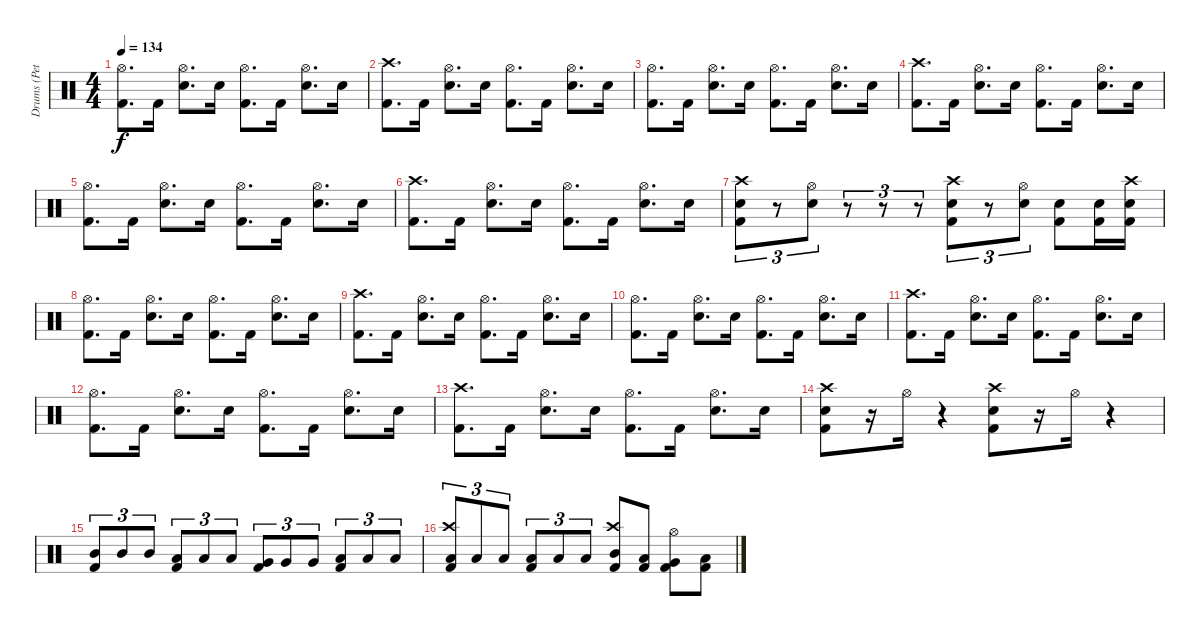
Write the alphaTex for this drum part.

\track ("Drums (Peter Criss)" "Drums (Pet") {instrument percussion}
\staff {score}
\articulation defaults
\ts (4 4)
\tempo 134
\clef neutral
\ks c
("Hi-Hat (open)" "Kick (hit) 2").8{d dy f} "Kick (hit) 2".16 ("Snare (hit) 2" "Hi-Hat (open)").8{d} "Snare (hit) 2".16 ("Hi-Hat (open)" "Kick (hit) 2").8{d} "Kick (hit) 2".16 ("Snare (hit) 2" "Hi-Hat (open)").8{d} "Snare (hit) 2".16 |
("Crash high (hit)" "Kick (hit) 2").8{d} "Kick (hit) 2".16 ("Snare (hit) 2" "Hi-Hat (open)").8{d} "Snare (hit) 2".16 ("Hi-Hat (open)" "Kick (hit) 2").8{d} "Kick (hit) 2".16 ("Snare (hit) 2" "Hi-Hat (open)").8{d} "Snare (hit) 2".16 |
("Hi-Hat (open)" "Kick (hit) 2").8{d} "Kick (hit) 2".16 ("Snare (hit) 2" "Hi-Hat (open)").8{d} "Snare (hit) 2".16 ("Hi-Hat (open)" "Kick (hit) 2").8{d} "Kick (hit) 2".16 ("Snare (hit) 2" "Hi-Hat (open)").8{d} "Snare (hit) 2".16 |
("Crash high (hit)" "Kick (hit) 2").8{d} "Kick (hit) 2".16 ("Snare (hit) 2" "Hi-Hat (open)").8{d} "Snare (hit) 2".16 ("Hi-Hat (open)" "Kick (hit) 2").8{d} "Kick (hit) 2".16 ("Snare (hit) 2" "Hi-Hat (open)").8{d} "Snare (hit) 2".16 |
("Hi-Hat (open)" "Kick (hit) 2").8{d} "Kick (hit) 2".16 ("Snare (hit) 2" "Hi-Hat (open)").8{d} "Snare (hit) 2".16 ("Hi-Hat (open)" "Kick (hit) 2").8{d} "Kick (hit) 2".16 ("Snare (hit) 2" "Hi-Hat (open)").8{d} "Snare (hit) 2".16 |
("Crash high (hit)" "Kick (hit) 2").8{d} "Kick (hit) 2".16 ("Snare (hit) 2" "Hi-Hat (open)").8{d} "Snare (hit) 2".16 ("Hi-Hat (open)" "Kick (hit) 2").8{d} "Kick (hit) 2".16 ("Snare (hit) 2" "Hi-Hat (open)").8{d} "Snare (hit) 2".16 |
("Crash high (hit)" "Snare (hit) 2" "Kick (hit) 2").8{tu (3 2)} r.8{tu (3 2)} ("Hi-Hat (open)" "Snare (hit) 2").8{tu (3 2)} r.8{tu (3 2)} r.8{tu (3 2)} r.8{tu (3 2)} ("Crash high (hit)" "Snare (hit) 2" "Kick (hit) 2").8{tu (3 2)} r.8{tu (3 2)} ("Hi-Hat (open)" "Snare (hit) 2").8{tu (3 2)} ("Snare (hit) 2" "Kick (hit) 2").8 ("Snare (hit) 2" "Kick (hit) 2").16 ("Crash high (hit)" "Snare (hit) 2" "Kick (hit) 2").16 |
("Hi-Hat (open)" "Kick (hit) 2").8{d} "Kick (hit) 2".16 ("Snare (hit) 2" "Hi-Hat (open)").8{d} "Snare (hit) 2".16 ("Hi-Hat (open)" "Kick (hit) 2").8{d} "Kick (hit) 2".16 ("Snare (hit) 2" "Hi-Hat (open)").8{d} "Snare (hit) 2".16 |
("Crash high (hit)" "Kick (hit) 2").8{d} "Kick (hit) 2".16 ("Snare (hit) 2" "Hi-Hat (open)").8{d} "Snare (hit) 2".16 ("Hi-Hat (open)" "Kick (hit) 2").8{d} "Kick (hit) 2".16 ("Snare (hit) 2" "Hi-Hat (open)").8{d} "Snare (hit) 2".16 |
("Hi-Hat (open)" "Kick (hit) 2").8{d} "Kick (hit) 2".16 ("Snare (hit) 2" "Hi-Hat (open)").8{d} "Snare (hit) 2".16 ("Hi-Hat (open)" "Kick (hit) 2").8{d} "Kick (hit) 2".16 ("Snare (hit) 2" "Hi-Hat (open)").8{d} "Snare (hit) 2".16 |
("Crash high (hit)" "Kick (hit) 2").8{d} "Kick (hit) 2".16 ("Snare (hit) 2" "Hi-Hat (open)").8{d} "Snare (hit) 2".16 ("Hi-Hat (open)" "Kick (hit) 2").8{d} "Kick (hit) 2".16 ("Snare (hit) 2" "Hi-Hat (open)").8{d} "Snare (hit) 2".16 |
("Hi-Hat (open)" "Kick (hit) 2").8{d} "Kick (hit) 2".16 ("Snare (hit) 2" "Hi-Hat (open)").8{d} "Snare (hit) 2".16 ("Hi-Hat (open)" "Kick (hit) 2").8{d} "Kick (hit) 2".16 ("Snare (hit) 2" "Hi-Hat (open)").8{d} "Snare (hit) 2".16 |
("Crash high (hit)" "Kick (hit) 2").8{d} "Kick (hit) 2".16 ("Snare (hit) 2" "Hi-Hat (open)").8{d} "Snare (hit) 2".16 ("Hi-Hat (open)" "Kick (hit) 2").8{d} "Kick (hit) 2".16 ("Snare (hit) 2" "Hi-Hat (open)").8{d} "Snare (hit) 2".16 |
("Snare (hit) 2" "Crash high (hit)" "Kick (hit) 2").8 r.16 "Hi-Hat (open)".16 r.4 ("Snare (hit) 2" "Crash high (hit)" "Kick (hit) 2").8 r.16 "Hi-Hat (open)".16 r.4 |
("Mid Tom (hit)" "Kick (hit) 2").8{tu (3 2)} "Mid Tom (hit)".8{tu (3 2)} "Mid Tom (hit)".8{tu (3 2)} ("Low Tom (hit)" "Kick (hit) 2").8{tu (3 2)} "Low Tom (hit)".8{tu (3 2)} "Low Tom (hit)".8{tu (3 2)} ("Very Low Tom (hit)" "Kick (hit) 2").8{tu (3 2)} "Very Low Tom (hit)".8{tu (3 2)} "Very Low Tom (hit)".8{tu (3 2)} ("Low Floor Tom (hit)" "Kick (hit) 2").8{tu (3 2)} "Low Floor Tom (hit)".8{tu (3 2)} "Low Floor Tom (hit)".8{tu (3 2)} |
("Low Floor Tom (hit)" "Crash high (hit)" "Kick (hit) 2").8{tu (3 2)} "Low Floor Tom (hit)".8{tu (3 2)} "Low Floor Tom (hit)".8{tu (3 2)} ("Low Floor Tom (hit)" "Kick (hit) 2").8{tu (3 2)} "Low Floor Tom (hit)".8{tu (3 2)} "Low Floor Tom (hit)".8{tu (3 2)} ("Mid Tom (hit)" "Crash high (hit)" "Kick (hit) 2").8 ("Low Tom (hit)" "Kick (hit) 2").8 ("Very Low Tom (hit)" "Hi-Hat (open)" "Kick (hit) 2").8 ("Low Floor Tom (hit)" "Kick (hit) 2").8
